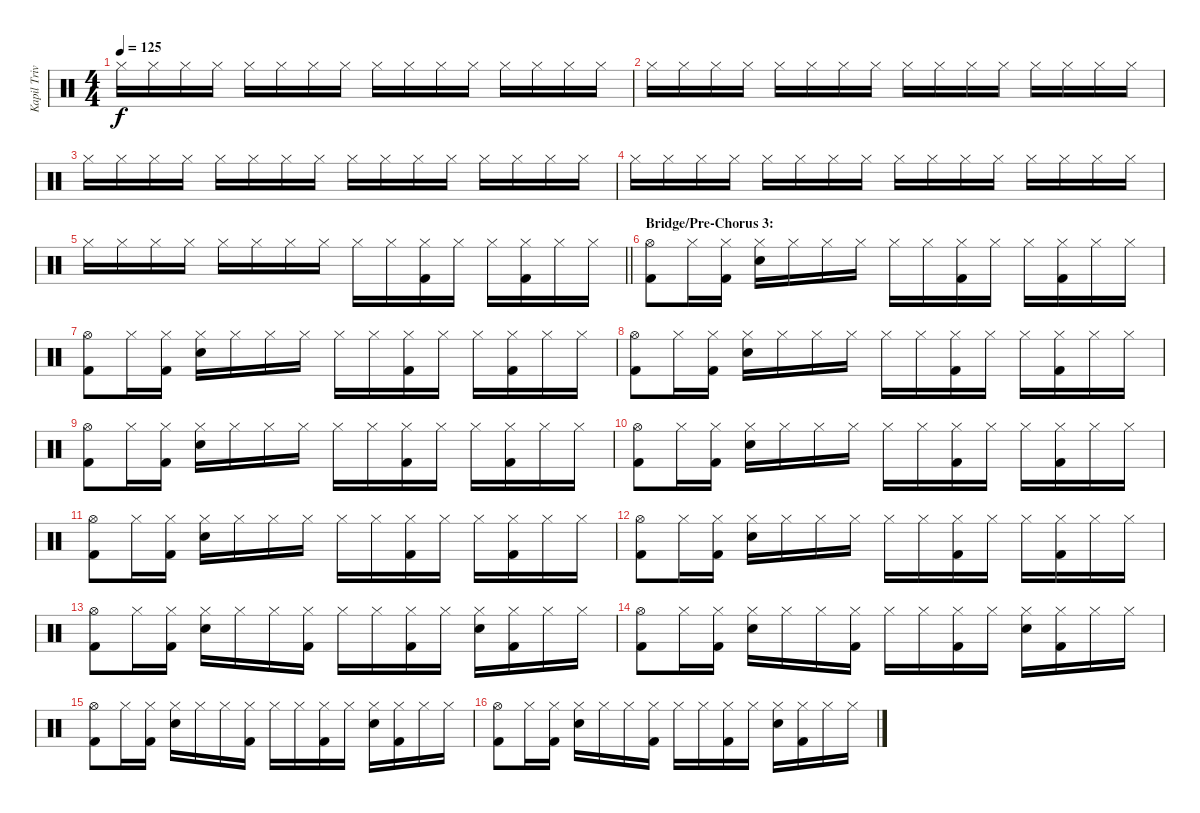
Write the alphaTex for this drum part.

\track ("Kapil Trivedi (Percussion)" "Kapil Triv") {instrument percussion}
\staff {score}
\articulation defaults
\ts (4 4)
\tempo 125
\clef neutral
\ks c "Hi-Hat (closed)".16{dy f} "Hi-Hat (closed)".16 "Hi-Hat (closed)".16 "Hi-Hat (closed)".16 "Hi-Hat (closed)".16 "Hi-Hat (closed)".16 "Hi-Hat (closed)".16 "Hi-Hat (closed)".16 "Hi-Hat (closed)".16 "Hi-Hat (closed)".16 "Hi-Hat (closed)".16 "Hi-Hat (closed)".16 "Hi-Hat (closed)".16 "Hi-Hat (closed)".16 "Hi-Hat (closed)".16 "Hi-Hat (closed)".16
|
"Hi-Hat (closed)".16 "Hi-Hat (closed)".16 "Hi-Hat (closed)".16 "Hi-Hat (closed)".16 "Hi-Hat (closed)".16 "Hi-Hat (closed)".16 "Hi-Hat (closed)".16 "Hi-Hat (closed)".16 "Hi-Hat (closed)".16 "Hi-Hat (closed)".16 "Hi-Hat (closed)".16 "Hi-Hat (closed)".16 "Hi-Hat (closed)".16 "Hi-Hat (closed)".16 "Hi-Hat (closed)".16 "Hi-Hat (closed)".16 |
"Hi-Hat (closed)".16 "Hi-Hat (closed)".16 "Hi-Hat (closed)".16 "Hi-Hat (closed)".16 "Hi-Hat (closed)".16 "Hi-Hat (closed)".16 "Hi-Hat (closed)".16 "Hi-Hat (closed)".16 "Hi-Hat (closed)".16 "Hi-Hat (closed)".16 "Hi-Hat (closed)".16 "Hi-Hat (closed)".16 "Hi-Hat (closed)".16 "Hi-Hat (closed)".16 "Hi-Hat (closed)".16 "Hi-Hat (closed)".16 |
"Hi-Hat (closed)".16 "Hi-Hat (closed)".16 "Hi-Hat (closed)".16 "Hi-Hat (closed)".16 "Hi-Hat (closed)".16 "Hi-Hat (closed)".16 "Hi-Hat (closed)".16 "Hi-Hat (closed)".16 "Hi-Hat (closed)".16 "Hi-Hat (closed)".16 "Hi-Hat (closed)".16 "Hi-Hat (closed)".16 "Hi-Hat (closed)".16 "Hi-Hat (closed)".16 "Hi-Hat (closed)".16 "Hi-Hat (closed)".16 |
\barLineRight lightlight "Hi-Hat (closed)".16 "Hi-Hat (closed)".16 "Hi-Hat (closed)".16 "Hi-Hat (closed)".16 "Hi-Hat (closed)".16 "Hi-Hat (closed)".16 "Hi-Hat (closed)".16 "Hi-Hat (closed)".16 "Hi-Hat (closed)".16 "Hi-Hat (closed)".16
("Hi-Hat (closed)" "Kick (hit) 2").16 "Hi-Hat (closed)".16 "Hi-Hat (closed)".16 ("Hi-Hat (closed)" "Kick (hit) 2").16 "Hi-Hat (closed)".16 "Hi-Hat (closed)".16 |
\section ("" "Bridge/Pre-Chorus 3:")
("Hi-Hat (open)" "Kick (hit) 2").8 "Hi-Hat (closed)".16 ("Hi-Hat (closed)" "Kick (hit) 2").16 ("Hi-Hat (closed)" "Snare (hit) 2").16 "Hi-Hat (closed)".16 "Hi-Hat (closed)".16 "Hi-Hat (closed)".16 "Hi-Hat (closed)".16 "Hi-Hat (closed)".16 ("Hi-Hat (closed)" "Kick (hit) 2").16 "Hi-Hat (closed)".16 "Hi-Hat (closed)".16 ("Hi-Hat (closed)" "Kick (hit) 2").16 "Hi-Hat (closed)".16 "Hi-Hat (closed)".16 |
("Hi-Hat (open)" "Kick (hit) 2").8 "Hi-Hat (closed)".16 ("Hi-Hat (closed)" "Kick (hit) 2").16 ("Hi-Hat (closed)" "Snare (hit) 2").16 "Hi-Hat (closed)".16 "Hi-Hat (closed)".16 "Hi-Hat (closed)".16 "Hi-Hat (closed)".16 "Hi-Hat (closed)".16 ("Hi-Hat (closed)" "Kick (hit) 2").16 "Hi-Hat (closed)".16 "Hi-Hat (closed)".16 ("Hi-Hat (closed)" "Kick (hit) 2").16 "Hi-Hat (closed)".16 "Hi-Hat (closed)".16 |
("Hi-Hat (open)" "Kick (hit) 2").8 "Hi-Hat (closed)".16 ("Hi-Hat (closed)" "Kick (hit) 2").16 ("Hi-Hat (closed)" "Snare (hit) 2").16 "Hi-Hat (closed)".16 "Hi-Hat (closed)".16 "Hi-Hat (closed)".16 "Hi-Hat (closed)".16 "Hi-Hat (closed)".16 ("Hi-Hat (closed)" "Kick (hit) 2").16 "Hi-Hat (closed)".16 "Hi-Hat (closed)".16 ("Hi-Hat (closed)" "Kick (hit) 2").16 "Hi-Hat (closed)".16 "Hi-Hat (closed)".16 |
("Hi-Hat (open)" "Kick (hit) 2").8 "Hi-Hat (closed)".16 ("Hi-Hat (closed)" "Kick (hit) 2").16 ("Hi-Hat (closed)" "Snare (hit) 2").16 "Hi-Hat (closed)".16 "Hi-Hat (closed)".16 "Hi-Hat (closed)".16 "Hi-Hat (closed)".16 "Hi-Hat (closed)".16 ("Hi-Hat (closed)" "Kick (hit) 2").16 "Hi-Hat (closed)".16 "Hi-Hat (closed)".16 ("Hi-Hat (closed)" "Kick (hit) 2").16 "Hi-Hat (closed)".16 "Hi-Hat (closed)".16 |
("Hi-Hat (open)" "Kick (hit) 2").8 "Hi-Hat (closed)".16 ("Hi-Hat (closed)" "Kick (hit) 2").16 ("Hi-Hat (closed)" "Snare (hit) 2").16 "Hi-Hat (closed)".16 "Hi-Hat (closed)".16 "Hi-Hat (closed)".16 "Hi-Hat (closed)".16 "Hi-Hat (closed)".16 ("Hi-Hat (closed)" "Kick (hit) 2").16 "Hi-Hat (closed)".16 "Hi-Hat (closed)".16 ("Hi-Hat (closed)" "Kick (hit) 2").16 "Hi-Hat (closed)".16 "Hi-Hat (closed)".16 |
("Hi-Hat (open)" "Kick (hit) 2").8 "Hi-Hat (closed)".16 ("Hi-Hat (closed)" "Kick (hit) 2").16 ("Hi-Hat (closed)" "Snare (hit) 2").16 "Hi-Hat (closed)".16 "Hi-Hat (closed)".16 "Hi-Hat (closed)".16 "Hi-Hat (closed)".16 "Hi-Hat (closed)".16 ("Hi-Hat (closed)" "Kick (hit) 2").16 "Hi-Hat (closed)".16 "Hi-Hat (closed)".16 ("Hi-Hat (closed)" "Kick (hit) 2").16 "Hi-Hat (closed)".16 "Hi-Hat (closed)".16 |
("Hi-Hat (open)" "Kick (hit) 2").8 "Hi-Hat (closed)".16 ("Hi-Hat (closed)" "Kick (hit) 2").16 ("Hi-Hat (closed)" "Snare (hit) 2").16 "Hi-Hat (closed)".16 "Hi-Hat (closed)".16 "Hi-Hat (closed)".16 "Hi-Hat (closed)".16 "Hi-Hat (closed)".16 ("Hi-Hat (closed)" "Kick (hit) 2").16 "Hi-Hat (closed)".16 "Hi-Hat (closed)".16 ("Hi-Hat (closed)" "Kick (hit) 2").16 "Hi-Hat (closed)".16 "Hi-Hat (closed)".16 |
("Hi-Hat (open)" "Kick (hit) 2").8 "Hi-Hat (closed)".16 ("Hi-Hat (closed)" "Kick (hit) 2").16 ("Hi-Hat (closed)" "Snare (hit) 2").16 "Hi-Hat (closed)".16 "Hi-Hat (closed)".16 ("Hi-Hat (closed)" "Kick (hit) 2").16 "Hi-Hat (closed)".16 "Hi-Hat (closed)".16 ("Hi-Hat (closed)" "Kick (hit) 2").16 "Hi-Hat (closed)".16 ("Hi-Hat (closed)" "Snare (hit) 2").16 ("Hi-Hat (closed)" "Kick (hit) 2").16 "Hi-Hat (closed)".16 "Hi-Hat (closed)".16 |
("Hi-Hat (open)" "Kick (hit) 2").8 "Hi-Hat (closed)".16 ("Hi-Hat (closed)" "Kick (hit) 2").16 ("Hi-Hat (closed)" "Snare (hit) 2").16 "Hi-Hat (closed)".16 "Hi-Hat (closed)".16 ("Hi-Hat (closed)" "Kick (hit) 2").16 "Hi-Hat (closed)".16 "Hi-Hat (closed)".16 ("Hi-Hat (closed)" "Kick (hit) 2").16 "Hi-Hat (closed)".16 ("Hi-Hat (closed)" "Snare (hit) 2").16 ("Hi-Hat (closed)" "Kick (hit) 2").16 "Hi-Hat (closed)".16 "Hi-Hat (closed)".16 |
("Hi-Hat (open)" "Kick (hit) 2").8 "Hi-Hat (closed)".16 ("Hi-Hat (closed)" "Kick (hit) 2").16 ("Hi-Hat (closed)" "Snare (hit) 2").16 "Hi-Hat (closed)".16 "Hi-Hat (closed)".16 ("Hi-Hat (closed)" "Kick (hit) 2").16 "Hi-Hat (closed)".16 "Hi-Hat (closed)".16 ("Hi-Hat (closed)" "Kick (hit) 2").16 "Hi-Hat (closed)".16 ("Hi-Hat (closed)" "Snare (hit) 2").16 ("Hi-Hat (closed)" "Kick (hit) 2").16 "Hi-Hat (closed)".16 "Hi-Hat (closed)".16 |
("Hi-Hat (open)" "Kick (hit) 2").8 "Hi-Hat (closed)".16 ("Hi-Hat (closed)" "Kick (hit) 2").16 ("Hi-Hat (closed)" "Snare (hit) 2").16 "Hi-Hat (closed)".16 "Hi-Hat (closed)".16 ("Hi-Hat (closed)" "Kick (hit) 2").16 "Hi-Hat (closed)".16 "Hi-Hat (closed)".16 ("Hi-Hat (closed)" "Kick (hit) 2").16 "Hi-Hat (closed)".16 ("Hi-Hat (closed)" "Snare (hit) 2").16 ("Hi-Hat (closed)" "Kick (hit) 2").16 "Hi-Hat (closed)".16 "Hi-Hat (closed)".16
